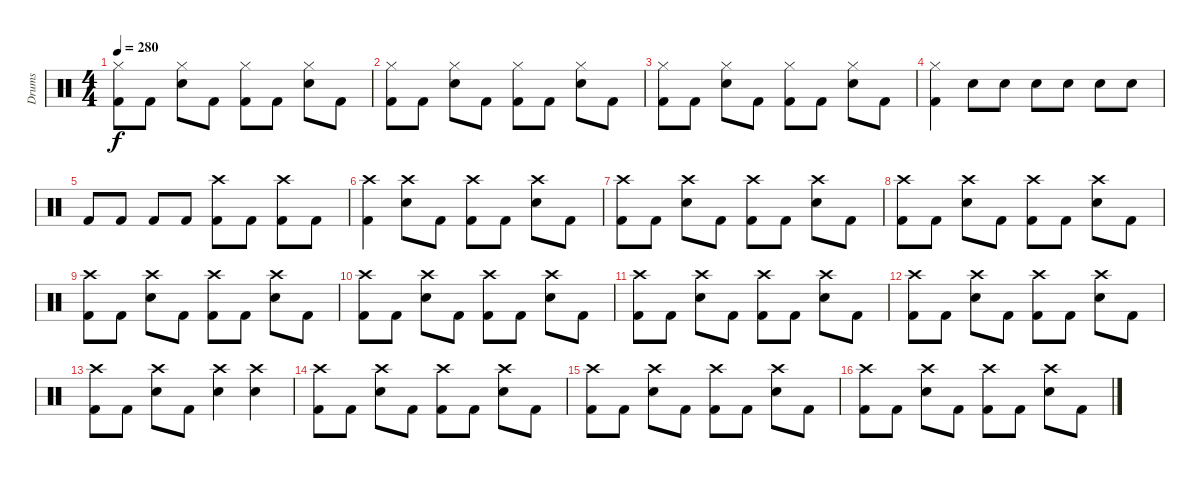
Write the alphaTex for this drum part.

\track ("Drums" "Drums") {instrument percussion}
\staff {score}
\articulation defaults
\ts (4 4)
\tempo 280
\clef neutral
\ks c
("Hi-Hat (closed)" "Kick (hit) 2").8{dy f} "Kick (hit) 2".8 ("Hi-Hat (closed)" "Snare (hit) 2").8 "Kick (hit) 2".8 ("Hi-Hat (closed)" "Kick (hit) 2").8 "Kick (hit) 2".8 ("Hi-Hat (closed)" "Snare (hit) 2").8 "Kick (hit) 2".8 |
("Hi-Hat (closed)" "Kick (hit) 2").8 "Kick (hit) 2".8 ("Hi-Hat (closed)" "Snare (hit) 2").8 "Kick (hit) 2".8 ("Hi-Hat (closed)" "Kick (hit) 2").8 "Kick (hit) 2".8 ("Hi-Hat (closed)" "Snare (hit) 2").8 "Kick (hit) 2".8 |
("Hi-Hat (closed)" "Kick (hit) 2").8 "Kick (hit) 2".8 ("Hi-Hat (closed)" "Snare (hit) 2").8 "Kick (hit) 2".8 ("Hi-Hat (closed)" "Kick (hit) 2").8 "Kick (hit) 2".8 ("Hi-Hat (closed)" "Snare (hit) 2").8 "Kick (hit) 2".8 |
("Kick (hit) 2" "Hi-Hat (closed)").4 "Snare (hit) 2".8 "Snare (hit) 2".8 "Snare (hit) 2".8 "Snare (hit) 2".8 "Snare (hit) 2".8 "Snare (hit) 2".8 |
"Kick (hit) 2".8 "Kick (hit) 2".8 "Kick (hit) 2".8 "Kick (hit) 2".8 ("Kick (hit) 2" "Crash high (hit)").8 "Kick (hit) 2".8 ("Kick (hit) 2" "Crash high (hit)").8 "Kick (hit) 2".8 |
("Crash high (hit)" "Kick (hit) 2").4 ("Crash high (hit)" "Snare (hit) 2").8 "Kick (hit) 2".8 ("Crash high (hit)" "Kick (hit) 2").8 "Kick (hit) 2".8 ("Crash high (hit)" "Snare (hit) 2").8 "Kick (hit) 2".8 |
("Crash high (hit)" "Kick (hit) 2").8 "Kick (hit) 2".8 ("Crash high (hit)" "Snare (hit) 2").8 "Kick (hit) 2".8 ("Crash high (hit)" "Kick (hit) 2").8 "Kick (hit) 2".8 ("Crash high (hit)" "Snare (hit) 2").8 "Kick (hit) 2".8 |
("Crash high (hit)" "Kick (hit) 2").8 "Kick (hit) 2".8 ("Crash high (hit)" "Snare (hit) 2").8 "Kick (hit) 2".8 ("Crash high (hit)" "Kick (hit) 2").8 "Kick (hit) 2".8 ("Crash high (hit)" "Snare (hit) 2").8 "Kick (hit) 2".8 |
("Crash high (hit)" "Kick (hit) 2").8 "Kick (hit) 2".8 ("Crash high (hit)" "Snare (hit) 2").8 "Kick (hit) 2".8 ("Crash high (hit)" "Kick (hit) 2").8 "Kick (hit) 2".8 ("Crash high (hit)" "Snare (hit) 2").8 "Kick (hit) 2".8 |
("Crash high (hit)" "Kick (hit) 2").8 "Kick (hit) 2".8 ("Crash high (hit)" "Snare (hit) 2").8 "Kick (hit) 2".8 ("Crash high (hit)" "Kick (hit) 2").8 "Kick (hit) 2".8 ("Crash high (hit)" "Snare (hit) 2").8 "Kick (hit) 2".8 |
("Crash high (hit)" "Kick (hit) 2").8 "Kick (hit) 2".8 ("Crash high (hit)" "Snare (hit) 2").8 "Kick (hit) 2".8 ("Crash high (hit)" "Kick (hit) 2").8 "Kick (hit) 2".8 ("Crash high (hit)" "Snare (hit) 2").8 "Kick (hit) 2".8 |
("Crash high (hit)" "Kick (hit) 2").8 "Kick (hit) 2".8 ("Crash high (hit)" "Snare (hit) 2").8 "Kick (hit) 2".8 ("Crash high (hit)" "Kick (hit) 2").8 "Kick (hit) 2".8 ("Crash high (hit)" "Snare (hit) 2").8 "Kick (hit) 2".8 |
("Crash high (hit)" "Kick (hit) 2").8 "Kick (hit) 2".8 ("Crash high (hit)" "Snare (hit) 2").8 "Kick (hit) 2".8 ("Snare (hit) 2" "Crash high (hit)").4 ("Snare (hit) 2" "Crash high (hit)").4 |
("Crash high (hit)" "Kick (hit) 2").8 "Kick (hit) 2".8 ("Crash high (hit)" "Snare (hit) 2").8 "Kick (hit) 2".8 ("Crash high (hit)" "Kick (hit) 2").8 "Kick (hit) 2".8 ("Crash high (hit)" "Snare (hit) 2").8 "Kick (hit) 2".8 |
("Crash high (hit)" "Kick (hit) 2").8 "Kick (hit) 2".8 ("Crash high (hit)" "Snare (hit) 2").8 "Kick (hit) 2".8 ("Crash high (hit)" "Kick (hit) 2").8 "Kick (hit) 2".8 ("Crash high (hit)" "Snare (hit) 2").8 "Kick (hit) 2".8 |
("Crash high (hit)" "Kick (hit) 2").8 "Kick (hit) 2".8 ("Crash high (hit)" "Snare (hit) 2").8 "Kick (hit) 2".8 ("Crash high (hit)" "Kick (hit) 2").8 "Kick (hit) 2".8 ("Crash high (hit)" "Snare (hit) 2").8 "Kick (hit) 2".8
